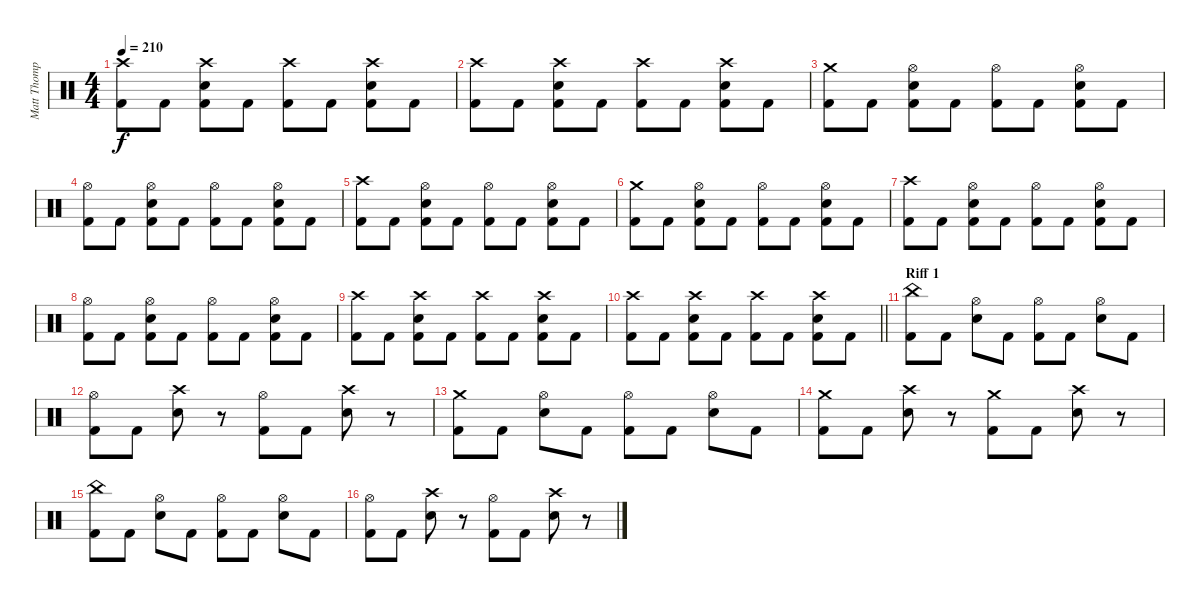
\track ("Matt Thompson" "Matt Thomp") {instrument percussion}
\staff {score}
\articulation defaults
\ts (4 4)
\tempo 210
\clef neutral
\ks c
("Crash high (hit)" "Kick (hit) 2").8{dy f} "Kick (hit) 2".8 ("Crash high (hit)" "Electric Snare (hit)" "Kick (hit) 2").8 "Kick (hit) 2".8 ("Crash high (hit)" "Kick (hit) 2").8 "Kick (hit) 2".8 ("Crash high (hit)" "Electric Snare (hit)" "Kick (hit) 2").8 "Kick (hit) 2".8 |
("Crash high (hit)" "Kick (hit) 2").8 "Kick (hit) 2".8 ("Crash high (hit)" "Electric Snare (hit)" "Kick (hit) 2").8 "Kick (hit) 2".8 ("Crash high (hit)" "Kick (hit) 2").8 "Kick (hit) 2".8 ("Crash high (hit)" "Electric Snare (hit)" "Kick (hit) 2").8 "Kick (hit) 2".8 |
("Crash medium (hit)" "Kick (hit) 2").8 "Kick (hit) 2".8 ("Hi-Hat (open)" "Electric Snare (hit)" "Kick (hit) 2").8 "Kick (hit) 2".8 ("Hi-Hat (open)" "Kick (hit) 2").8 "Kick (hit) 2".8 ("Hi-Hat (open)" "Electric Snare (hit)" "Kick (hit) 2").8 "Kick (hit) 2".8 |
("Hi-Hat (open)" "Kick (hit) 2").8 "Kick (hit) 2".8 ("Hi-Hat (open)" "Electric Snare (hit)" "Kick (hit) 2").8 "Kick (hit) 2".8 ("Hi-Hat (open)" "Kick (hit) 2").8 "Kick (hit) 2".8 ("Hi-Hat (open)" "Electric Snare (hit)" "Kick (hit) 2").8 "Kick (hit) 2".8 |
("Crash high (hit)" "Kick (hit) 2").8 "Kick (hit) 2".8 ("Hi-Hat (open)" "Electric Snare (hit)" "Kick (hit) 2").8 "Kick (hit) 2".8 ("Hi-Hat (open)" "Kick (hit) 2").8 "Kick (hit) 2".8 ("Hi-Hat (open)" "Electric Snare (hit)" "Kick (hit) 2").8 "Kick (hit) 2".8 |
("Crash medium (hit)" "Kick (hit) 2").8 "Kick (hit) 2".8 ("Hi-Hat (open)" "Electric Snare (hit)" "Kick (hit) 2").8 "Kick (hit) 2".8 ("Hi-Hat (open)" "Kick (hit) 2").8 "Kick (hit) 2".8 ("Hi-Hat (open)" "Electric Snare (hit)" "Kick (hit) 2").8 "Kick (hit) 2".8 |
("Crash high (hit)" "Kick (hit) 2").8 "Kick (hit) 2".8 ("Hi-Hat (open)" "Electric Snare (hit)" "Kick (hit) 2").8 "Kick (hit) 2".8 ("Hi-Hat (open)" "Kick (hit) 2").8 "Kick (hit) 2".8 ("Hi-Hat (open)" "Electric Snare (hit)" "Kick (hit) 2").8 "Kick (hit) 2".8 |
("Hi-Hat (open)" "Kick (hit) 2").8 "Kick (hit) 2".8 ("Hi-Hat (open)" "Electric Snare (hit)" "Kick (hit) 2").8 "Kick (hit) 2".8 ("Hi-Hat (open)" "Kick (hit) 2").8 "Kick (hit) 2".8 ("Hi-Hat (open)" "Electric Snare (hit)" "Kick (hit) 2").8 "Kick (hit) 2".8 |
("Crash high (hit)" "Kick (hit) 2").8 "Kick (hit) 2".8 ("Crash high (hit)" "Electric Snare (hit)" "Kick (hit) 2").8 "Kick (hit) 2".8 ("Crash high (hit)" "Kick (hit) 2").8 "Kick (hit) 2".8 ("Crash high (hit)" "Electric Snare (hit)" "Kick (hit) 2").8 "Kick (hit) 2".8 |
\barLineRight lightlight
("Crash high (hit)" "Kick (hit) 2").8 "Kick (hit) 2".8 ("Crash high (hit)" "Electric Snare (hit)" "Kick (hit) 2").8 "Kick (hit) 2".8 ("Crash high (hit)" "Kick (hit) 2").8 "Kick (hit) 2".8 ("Crash high (hit)" "Electric Snare (hit)" "Kick (hit) 2").8 "Kick (hit) 2".8 |
\section ("" "Riff 1")
("China (hit)" "Kick (hit) 2").8 "Kick (hit) 2".8 ("Hi-Hat (open)" "Electric Snare (hit)").8 "Kick (hit) 2".8 ("Hi-Hat (open)" "Kick (hit) 2").8 "Kick (hit) 2".8 ("Hi-Hat (open)" "Electric Snare (hit)").8 "Kick (hit) 2".8 |
("Hi-Hat (open)" "Kick (hit) 2").8 "Kick (hit) 2".8 ("Crash high (hit)" "Electric Snare (hit)").8 r.8 ("Hi-Hat (open)" "Kick (hit) 2").8 "Kick (hit) 2".8 ("Crash high (hit)" "Electric Snare (hit)").8 r.8 |
("Crash medium (hit)" "Kick (hit) 2").8 "Kick (hit) 2".8 ("Hi-Hat (open)" "Electric Snare (hit)").8 "Kick (hit) 2".8 ("Hi-Hat (open)" "Kick (hit) 2").8 "Kick (hit) 2".8 ("Hi-Hat (open)" "Electric Snare (hit)").8 "Kick (hit) 2".8 |
("Crash medium (hit)" "Kick (hit) 2").8 "Kick (hit) 2".8 ("Crash high (hit)" "Electric Snare (hit)").8 r.8 ("Crash medium (hit)" "Kick (hit) 2").8 "Kick (hit) 2".8 ("Crash high (hit)" "Electric Snare (hit)").8 r.8 |
("China (hit)" "Kick (hit) 2").8 "Kick (hit) 2".8 ("Hi-Hat (open)" "Electric Snare (hit)").8 "Kick (hit) 2".8 ("Hi-Hat (open)" "Kick (hit) 2").8 "Kick (hit) 2".8 ("Hi-Hat (open)" "Electric Snare (hit)").8 "Kick (hit) 2".8 |
("Hi-Hat (open)" "Kick (hit) 2").8 "Kick (hit) 2".8 ("Crash high (hit)" "Electric Snare (hit)").8 r.8 ("Hi-Hat (open)" "Kick (hit) 2").8 "Kick (hit) 2".8 ("Crash high (hit)" "Electric Snare (hit)").8 r.8
